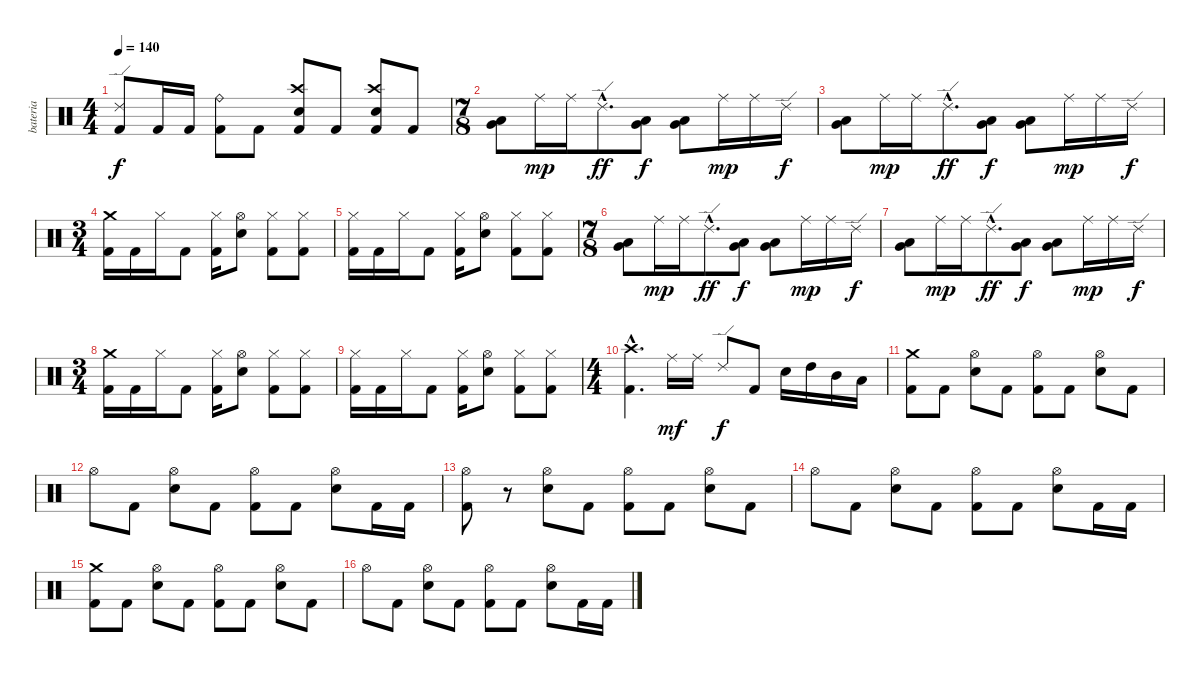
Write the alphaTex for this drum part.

\track ("bateria" "bateria") {instrument percussion}
\staff {score}
\articulation defaults
\ts (4 4)
\tempo 140
\clef neutral
\ks c
("Ride (edge) 2" "Kick (hit) 2").8{dy f} "Kick (hit) 2".16 "Kick (hit) 2".16 ("Ride (bell)" "Kick (hit) 2").8 "Kick (hit) 2".8 ("Crash high (hit)" "Electric Snare (hit)" "Kick (hit) 2").8 "Kick (hit) 2".8 ("Crash high (hit)" "Electric Snare (hit)" "Kick (hit) 2").8 "Kick (hit) 2".8 |
\ts (7 8)
("Very Low Tom (hit)" "Low Tom (hit)").8 "Ride (middle)".16{dy mp} "Ride (middle)".16 "Ride (edge) 2"{hac}.8{d dy ff} ("Very Low Tom (hit)" "Low Tom (hit)").8{dy f} ("Very Low Tom (hit)" "Low Tom (hit)").8 "Ride (middle)".16{dy mp} "Ride (middle)".16 "Ride (edge) 2".16{dy f} |
("Very Low Tom (hit)" "Low Tom (hit)").8 "Ride (middle)".16{dy mp} "Ride (middle)".16 "Ride (edge) 2"{hac}.8{d dy ff} ("Very Low Tom (hit)" "Low Tom (hit)").8{dy f} ("Very Low Tom (hit)" "Low Tom (hit)").8 "Ride (middle)".16{dy mp} "Ride (middle)".16 "Ride (edge) 2".16{dy f} |
\ts (3 4)
("Crash medium (hit)" "Kick (hit) 2").16 "Kick (hit) 2".16 "Hi-Hat (closed)".16 "Kick (hit) 2".8 ("Hi-Hat (closed)" "Kick (hit) 2").16 ("Hi-Hat (open)" "Electric Snare (hit)").8 ("Hi-Hat (closed)" "Kick (hit) 2").8 ("Hi-Hat (closed)" "Kick (hit) 2").8 |
("Hi-Hat (closed)" "Kick (hit) 2").16 "Kick (hit) 2".16 "Hi-Hat (closed)".16 "Kick (hit) 2".8 ("Hi-Hat (closed)" "Kick (hit) 2").16 ("Hi-Hat (open)" "Electric Snare (hit)").8 ("Hi-Hat (closed)" "Kick (hit) 2").8 ("Hi-Hat (closed)" "Kick (hit) 2").8 |
\ts (7 8)
("Very Low Tom (hit)" "Low Tom (hit)").8 "Ride (middle)".16{dy mp} "Ride (middle)".16 "Ride (edge) 2"{hac}.8{d dy ff} ("Very Low Tom (hit)" "Low Tom (hit)").8{dy f} ("Very Low Tom (hit)" "Low Tom (hit)").8 "Ride (middle)".16{dy mp} "Ride (middle)".16 "Ride (edge) 2".16{dy f} |
("Very Low Tom (hit)" "Low Tom (hit)").8 "Ride (middle)".16{dy mp} "Ride (middle)".16 "Ride (edge) 2"{hac}.8{d dy ff} ("Very Low Tom (hit)" "Low Tom (hit)").8{dy f} ("Very Low Tom (hit)" "Low Tom (hit)").8 "Ride (middle)".16{dy mp} "Ride (middle)".16 "Ride (edge) 2".16{dy f} |
\ts (3 4)
("Crash medium (hit)" "Kick (hit) 2").16 "Kick (hit) 2".16 "Hi-Hat (closed)".16 "Kick (hit) 2".8 ("Hi-Hat (closed)" "Kick (hit) 2").16 ("Hi-Hat (open)" "Electric Snare (hit)").8 ("Hi-Hat (closed)" "Kick (hit) 2").8 ("Hi-Hat (closed)" "Kick (hit) 2").8 |
("Hi-Hat (closed)" "Kick (hit) 2").16 "Kick (hit) 2".16 "Hi-Hat (closed)".16 "Kick (hit) 2".8 ("Hi-Hat (closed)" "Kick (hit) 2").16 ("Hi-Hat (open)" "Electric Snare (hit)").8 ("Hi-Hat (closed)" "Kick (hit) 2").8 ("Hi-Hat (closed)" "Kick (hit) 2").8 |
\ts (4 4)
("Crash high (hit)"{hac} "Kick (hit) 2"{hac}).4{d} "Ride (middle)".16{dy mf} "Ride (middle)".16 "Ride (edge) 2".8{dy f} "Kick (hit) 2".8 "Electric Snare (hit)".16 "High Tom (hit)".16 "Mid Tom (hit)".16 "Low Tom (hit)".16 |
("Crash medium (hit)" "Kick (hit) 2").8 "Kick (hit) 2".8 ("Hi-Hat (open)" "Electric Snare (hit)").8 "Kick (hit) 2".8 ("Hi-Hat (open)" "Kick (hit) 2").8 "Kick (hit) 2".8 ("Hi-Hat (open)" "Electric Snare (hit)").8 "Kick (hit) 2".8 |
"Hi-Hat (open)".8 "Kick (hit) 2".8 ("Hi-Hat (open)" "Electric Snare (hit)").8 "Kick (hit) 2".8 ("Hi-Hat (open)" "Kick (hit) 2").8 "Kick (hit) 2".8 ("Hi-Hat (open)" "Electric Snare (hit)").8 "Kick (hit) 2".16 "Kick (hit) 2".16 |
("Hi-Hat (open)" "Kick (hit) 2").8 r.8 ("Hi-Hat (open)" "Electric Snare (hit)").8 "Kick (hit) 2".8 ("Hi-Hat (open)" "Kick (hit) 2").8 "Kick (hit) 2".8 ("Hi-Hat (open)" "Electric Snare (hit)").8 "Kick (hit) 2".8 |
"Hi-Hat (open)".8 "Kick (hit) 2".8 ("Hi-Hat (open)" "Electric Snare (hit)").8 "Kick (hit) 2".8 ("Hi-Hat (open)" "Kick (hit) 2").8 "Kick (hit) 2".8 ("Hi-Hat (open)" "Electric Snare (hit)").8 "Kick (hit) 2".16 "Kick (hit) 2".16 |
("Crash medium (hit)" "Kick (hit) 2").8 "Kick (hit) 2".8 ("Hi-Hat (open)" "Electric Snare (hit)").8 "Kick (hit) 2".8 ("Hi-Hat (open)" "Kick (hit) 2").8 "Kick (hit) 2".8 ("Hi-Hat (open)" "Electric Snare (hit)").8 "Kick (hit) 2".8 |
"Hi-Hat (open)".8 "Kick (hit) 2".8 ("Hi-Hat (open)" "Electric Snare (hit)").8 "Kick (hit) 2".8 ("Hi-Hat (open)" "Kick (hit) 2").8 "Kick (hit) 2".8 ("Hi-Hat (open)" "Electric Snare (hit)").8 "Kick (hit) 2".16 "Kick (hit) 2".16
